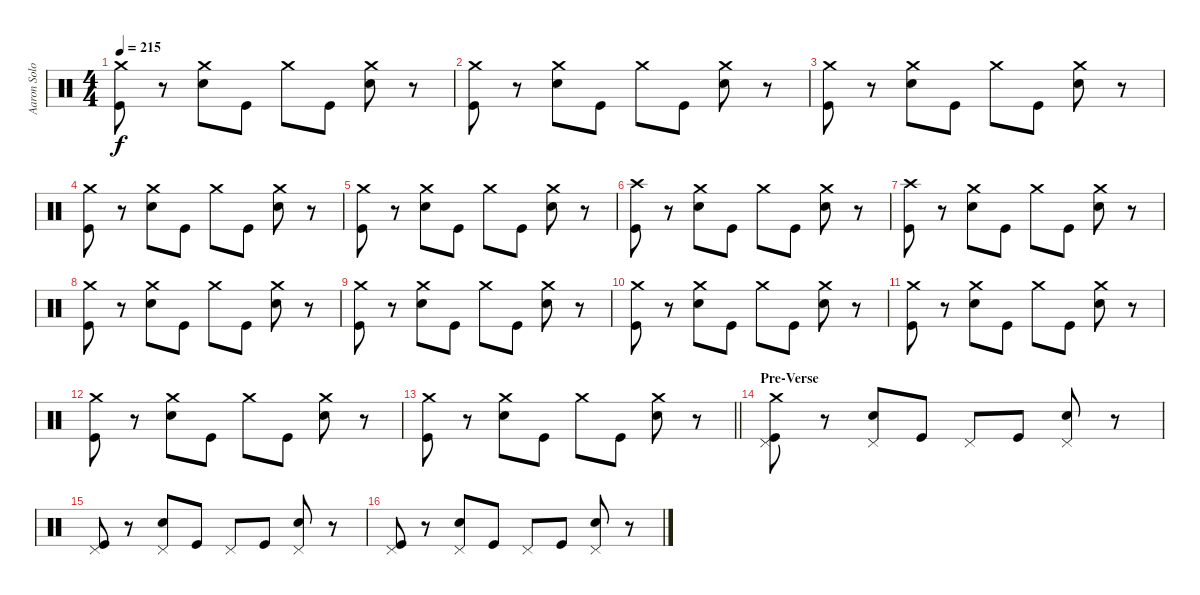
\track ("Aaron Solowoniuk" "Aaron Solo") {instrument percussion}
\staff {score}
\articulation defaults
\ts (4 4)
\tempo 215
\clef neutral
\ks c
("Crash medium (hit)" "Kick (hit)").8{dy f} r.8 ("Crash medium (hit)" "Electric Snare (hit)").8 "Kick (hit)".8 "Crash medium (hit)".8 "Kick (hit)".8 ("Crash medium (hit)" "Electric Snare (hit)").8 r.8 |
("Crash medium (hit)" "Kick (hit)").8 r.8 ("Crash medium (hit)" "Electric Snare (hit)").8 "Kick (hit)".8 "Crash medium (hit)".8 "Kick (hit)".8 ("Crash medium (hit)" "Electric Snare (hit)").8 r.8 |
("Crash medium (hit)" "Kick (hit)").8 r.8 ("Crash medium (hit)" "Electric Snare (hit)").8 "Kick (hit)".8 "Crash medium (hit)".8 "Kick (hit)".8 ("Crash medium (hit)" "Electric Snare (hit)").8 r.8 |
("Crash medium (hit)" "Kick (hit)").8 r.8 ("Crash medium (hit)" "Electric Snare (hit)").8 "Kick (hit)".8 "Crash medium (hit)".8 "Kick (hit)".8 ("Crash medium (hit)" "Electric Snare (hit)").8 r.8 |
("Crash medium (hit)" "Kick (hit)").8 r.8 ("Crash medium (hit)" "Electric Snare (hit)").8 "Kick (hit)".8 "Crash medium (hit)".8 "Kick (hit)".8 ("Crash medium (hit)" "Electric Snare (hit)").8 r.8 |
("Crash high (hit)" "Kick (hit)").8 r.8 ("Crash medium (hit)" "Electric Snare (hit)").8 "Kick (hit)".8 "Crash medium (hit)".8 "Kick (hit)".8 ("Crash medium (hit)" "Electric Snare (hit)").8 r.8 |
("Crash high (hit)" "Kick (hit)").8 r.8 ("Crash medium (hit)" "Electric Snare (hit)").8 "Kick (hit)".8 "Crash medium (hit)".8 "Kick (hit)".8 ("Crash medium (hit)" "Electric Snare (hit)").8 r.8 |
("Crash medium (hit)" "Kick (hit)").8 r.8 ("Crash medium (hit)" "Electric Snare (hit)").8 "Kick (hit)".8 "Crash medium (hit)".8 "Kick (hit)".8 ("Crash medium (hit)" "Electric Snare (hit)").8 r.8 |
("Crash medium (hit)" "Kick (hit)").8 r.8 ("Crash medium (hit)" "Electric Snare (hit)").8 "Kick (hit)".8 "Crash medium (hit)".8 "Kick (hit)".8 ("Crash medium (hit)" "Electric Snare (hit)").8 r.8 |
("Crash medium (hit)" "Kick (hit)").8 r.8 ("Crash medium (hit)" "Electric Snare (hit)").8 "Kick (hit)".8 "Crash medium (hit)".8 "Kick (hit)".8 ("Crash medium (hit)" "Electric Snare (hit)").8 r.8 |
("Crash medium (hit)" "Kick (hit)").8 r.8 ("Crash medium (hit)" "Electric Snare (hit)").8 "Kick (hit)".8 "Crash medium (hit)".8 "Kick (hit)".8 ("Crash medium (hit)" "Electric Snare (hit)").8 r.8 |
("Crash medium (hit)" "Kick (hit)").8 r.8 ("Crash medium (hit)" "Electric Snare (hit)").8 "Kick (hit)".8 "Crash medium (hit)".8 "Kick (hit)".8 ("Crash medium (hit)" "Electric Snare (hit)").8 r.8 |
\barLineRight lightlight
("Crash medium (hit)" "Kick (hit)").8 r.8 ("Crash medium (hit)" "Electric Snare (hit)").8 "Kick (hit)".8 "Crash medium (hit)".8 "Kick (hit)".8 ("Crash medium (hit)" "Electric Snare (hit)").8 r.8 |
\section ("" "Pre-Verse")
("Crash medium (hit)" "Pedal Hi-Hat (hit)" "Kick (hit)").8 r.8 ("Pedal Hi-Hat (hit)" "Electric Snare (hit)").8 "Kick (hit)".8 "Pedal Hi-Hat (hit)".8 "Kick (hit)".8 ("Pedal Hi-Hat (hit)" "Electric Snare (hit)").8 r.8 |
("Pedal Hi-Hat (hit)" "Kick (hit)").8 r.8 ("Pedal Hi-Hat (hit)" "Electric Snare (hit)").8 "Kick (hit)".8 "Pedal Hi-Hat (hit)".8 "Kick (hit)".8 ("Pedal Hi-Hat (hit)" "Electric Snare (hit)").8 r.8 |
("Pedal Hi-Hat (hit)" "Kick (hit)").8 r.8 ("Pedal Hi-Hat (hit)" "Electric Snare (hit)").8 "Kick (hit)".8 "Pedal Hi-Hat (hit)".8 "Kick (hit)".8 ("Pedal Hi-Hat (hit)" "Electric Snare (hit)").8 r.8
